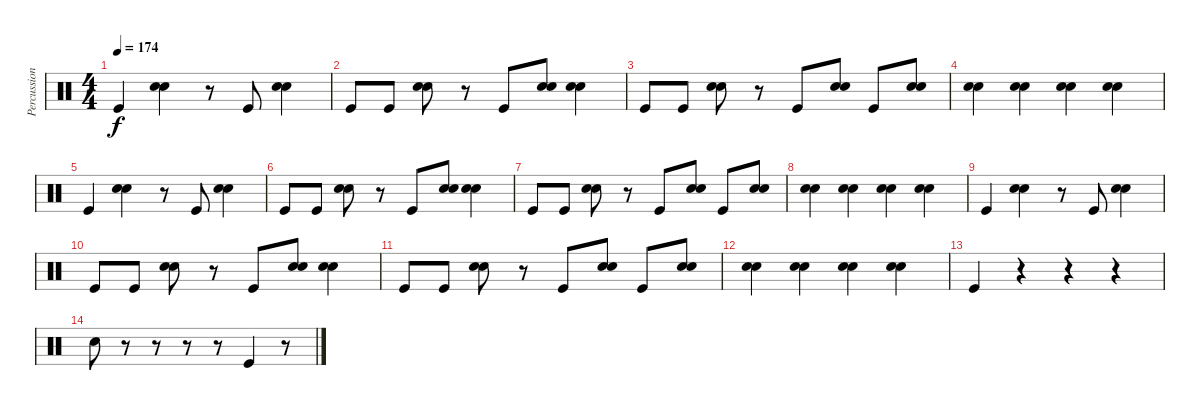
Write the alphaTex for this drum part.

\track ("Percussion" "Percussion") {instrument percussion}
\staff {score}
\articulation defaults
\ts (4 4)
\tempo 174
\clef neutral
\ks c "Kick (hit)".4{dy f}
("Snare (hit) 2" "Snare (hit) 2").4 r.8 "Kick (hit)".8 ("Snare (hit) 2" "Snare (hit) 2").4 |
"Kick (hit)".8 "Kick (hit)".8 ("Snare (hit) 2" "Snare (hit) 2").8 r.8 "Kick (hit)".8 ("Snare (hit) 2" "Snare (hit) 2").8 ("Snare (hit) 2" "Snare (hit) 2").4 |
"Kick (hit)".8 "Kick (hit)".8 ("Snare (hit) 2" "Snare (hit) 2").8 r.8 "Kick (hit)".8 ("Snare (hit) 2" "Snare (hit) 2").8 "Kick (hit)".8 ("Snare (hit) 2" "Snare (hit) 2").8 |
("Snare (hit) 2" "Snare (hit) 2").4 ("Snare (hit) 2" "Snare (hit) 2").4 ("Snare (hit) 2" "Snare (hit) 2").4 ("Snare (hit) 2" "Snare (hit) 2").4 |
"Kick (hit)".4 ("Snare (hit) 2" "Snare (hit) 2").4 r.8 "Kick (hit)".8 ("Snare (hit) 2" "Snare (hit) 2").4 |
"Kick (hit)".8 "Kick (hit)".8 ("Snare (hit) 2" "Snare (hit) 2").8 r.8 "Kick (hit)".8 ("Snare (hit) 2" "Snare (hit) 2").8 ("Snare (hit) 2" "Snare (hit) 2").4 |
"Kick (hit)".8 "Kick (hit)".8 ("Snare (hit) 2" "Snare (hit) 2").8 r.8 "Kick (hit)".8 ("Snare (hit) 2" "Snare (hit) 2").8 "Kick (hit)".8 ("Snare (hit) 2" "Snare (hit) 2").8 |
("Snare (hit) 2" "Snare (hit) 2").4 ("Snare (hit) 2" "Snare (hit) 2").4 ("Snare (hit) 2" "Snare (hit) 2").4 ("Snare (hit) 2" "Snare (hit) 2").4 |
"Kick (hit)".4 ("Snare (hit) 2" "Snare (hit) 2").4 r.8 "Kick (hit)".8 ("Snare (hit) 2" "Snare (hit) 2").4 |
"Kick (hit)".8 "Kick (hit)".8 ("Snare (hit) 2" "Snare (hit) 2").8 r.8 "Kick (hit)".8 ("Snare (hit) 2" "Snare (hit) 2").8 ("Snare (hit) 2" "Snare (hit) 2").4 |
"Kick (hit)".8 "Kick (hit)".8 ("Snare (hit) 2" "Snare (hit) 2").8 r.8 "Kick (hit)".8 ("Snare (hit) 2" "Snare (hit) 2").8 "Kick (hit)".8 ("Snare (hit) 2" "Snare (hit) 2").8 |
("Snare (hit) 2" "Snare (hit) 2").4 ("Snare (hit) 2" "Snare (hit) 2").4 ("Snare (hit) 2" "Snare (hit) 2").4 ("Snare (hit) 2" "Snare (hit) 2").4 |
"Kick (hit)".4 r.4 r.4 r.4 |
"Snare (hit) 2".8 r.8 r.8 r.8 r.8 "Kick (hit)".4 r.8
